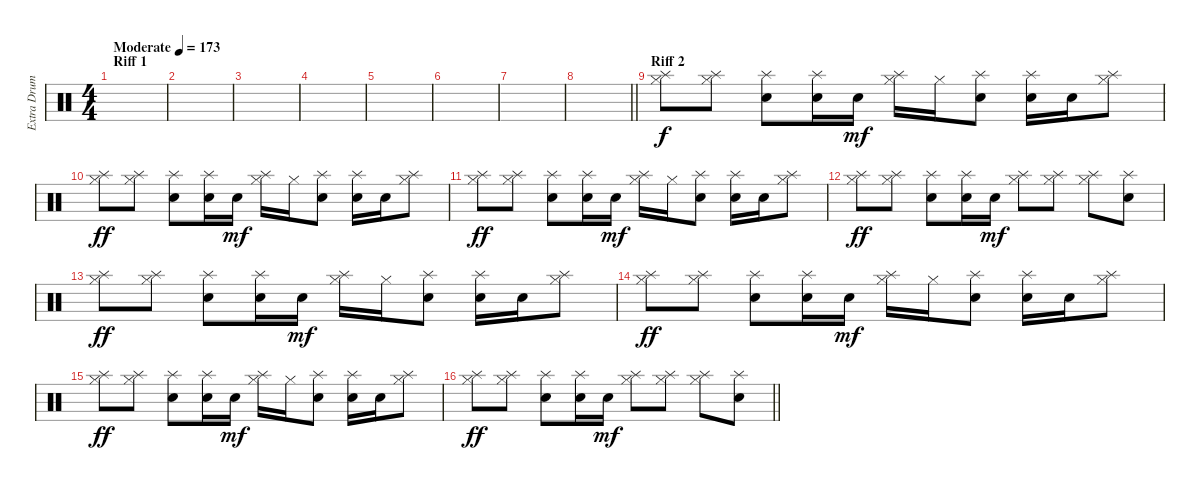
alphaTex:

\track ("Extra Drums" "Extra Drum") {instrument percussion}
\staff {score}
\articulation defaults
\ts (4 4)
\section ("" "Riff 1")
\tempo (173 "Moderate")
\clef neutral
\ks c
|
|
|
|
|
|
|
\barLineRight lightlight
|
\section ("" "Riff 2")
("Hi-Hat (closed)" "Splash (hit)").8 ("Hi-Hat (closed)" "Splash (hit)").8 ("Electric Snare (hit)" "Splash (hit)").8 ("Snare (hit) 2" "Splash (hit)").16 "Snare (hit) 2".16{dy mf} ("Hi-Hat (closed)" "Splash (hit)").16 "Hi-Hat (closed)".16 ("Electric Snare (hit)" "Splash (hit)").8 ("Electric Snare (hit)" "Splash (hit)").16 "Snare (hit) 2".16 ("Hi-Hat (closed)" "Splash (hit)").8 |
("Hi-Hat (closed)" "Splash (hit)").8{dy ff} ("Hi-Hat (closed)" "Splash (hit)").8 ("Electric Snare (hit)" "Splash (hit)").8 ("Snare (hit) 2" "Splash (hit)").16 "Snare (hit) 2".16{dy mf} ("Hi-Hat (closed)" "Splash (hit)").16 "Hi-Hat (closed)".16 ("Electric Snare (hit)" "Splash (hit)").8 ("Electric Snare (hit)" "Splash (hit)").16 "Snare (hit) 2".16 ("Hi-Hat (closed)" "Splash (hit)").8 |
("Hi-Hat (closed)" "Splash (hit)").8{dy ff} ("Hi-Hat (closed)" "Splash (hit)").8 ("Electric Snare (hit)" "Splash (hit)").8 ("Snare (hit) 2" "Splash (hit)").16 "Snare (hit) 2".16{dy mf} ("Hi-Hat (closed)" "Splash (hit)").16 "Hi-Hat (closed)".16 ("Electric Snare (hit)" "Splash (hit)").8 ("Electric Snare (hit)" "Splash (hit)").16 "Snare (hit) 2".16 ("Hi-Hat (closed)" "Splash (hit)").8 |
("Hi-Hat (closed)" "Splash (hit)").8{dy ff} ("Hi-Hat (closed)" "Splash (hit)").8 ("Electric Snare (hit)" "Splash (hit)").8 ("Snare (hit) 2" "Splash (hit)").16 "Snare (hit) 2".16{dy mf} ("Hi-Hat (closed)" "Splash (hit)").8 ("Hi-Hat (closed)" "Splash (hit)").8 ("Hi-Hat (closed)" "Splash (hit)").8 ("Snare (hit) 2" "Splash (hit)").8 |
("Hi-Hat (closed)" "Splash (hit)").8{dy ff} ("Hi-Hat (closed)" "Splash (hit)").8 ("Electric Snare (hit)" "Splash (hit)").8 ("Snare (hit) 2" "Splash (hit)").16 "Snare (hit) 2".16{dy mf} ("Hi-Hat (closed)" "Splash (hit)").16 "Hi-Hat (closed)".16 ("Electric Snare (hit)" "Splash (hit)").8 ("Electric Snare (hit)" "Splash (hit)").16 "Snare (hit) 2".16 ("Hi-Hat (closed)" "Splash (hit)").8 |
("Hi-Hat (closed)" "Splash (hit)").8{dy ff} ("Hi-Hat (closed)" "Splash (hit)").8 ("Electric Snare (hit)" "Splash (hit)").8 ("Snare (hit) 2" "Splash (hit)").16 "Snare (hit) 2".16{dy mf} ("Hi-Hat (closed)" "Splash (hit)").16 "Hi-Hat (closed)".16 ("Electric Snare (hit)" "Splash (hit)").8 ("Electric Snare (hit)" "Splash (hit)").16 "Snare (hit) 2".16 ("Hi-Hat (closed)" "Splash (hit)").8 |
("Hi-Hat (closed)" "Splash (hit)").8{dy ff} ("Hi-Hat (closed)" "Splash (hit)").8 ("Electric Snare (hit)" "Splash (hit)").8 ("Snare (hit) 2" "Splash (hit)").16 "Snare (hit) 2".16{dy mf} ("Hi-Hat (closed)" "Splash (hit)").16 "Hi-Hat (closed)".16 ("Electric Snare (hit)" "Splash (hit)").8 ("Electric Snare (hit)" "Splash (hit)").16 "Snare (hit) 2".16 ("Hi-Hat (closed)" "Splash (hit)").8 |
\barLineRight lightlight
("Hi-Hat (closed)" "Splash (hit)").8{dy ff} ("Hi-Hat (closed)" "Splash (hit)").8 ("Electric Snare (hit)" "Splash (hit)").8 ("Snare (hit) 2" "Splash (hit)").16 "Snare (hit) 2".16{dy mf} ("Hi-Hat (closed)" "Splash (hit)").8 ("Hi-Hat (closed)" "Splash (hit)").8 ("Hi-Hat (closed)" "Splash (hit)").8 ("Snare (hit) 2" "Splash (hit)").8
